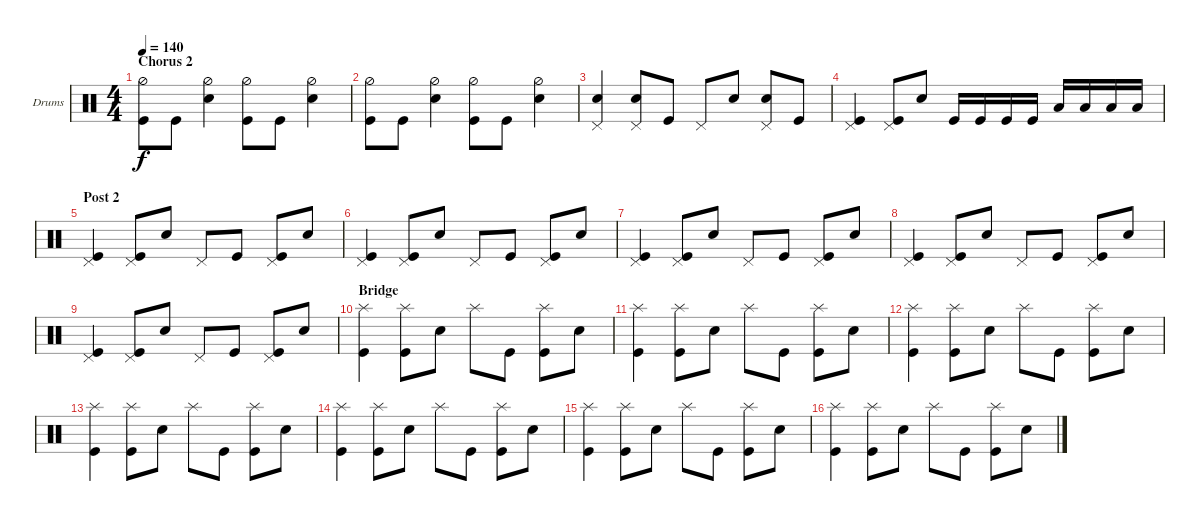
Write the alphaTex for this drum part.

\defaultSystemsLayout 4
\bracketExtendMode groupsimilarinstruments
\firstSystemTrackNameOrientation horizontal
\otherSystemsTrackNameOrientation horizontal
\track ("Drumkit" "Drums") {instrument percussion}
\staff {score}
\articulation defaults
\ts (4 4)
\section ("" "Chorus 2")
\tempo 140
\clef neutral
\ks c
("Kick (hit)" "Hi-Hat (half)").8{dy f} "Kick (hit)".8 ("Snare (hit) 2" "Hi-Hat (half)").4 ("Kick (hit)" "Hi-Hat (half)").8 "Kick (hit)".8 ("Snare (hit) 2" "Hi-Hat (half)").4 |
("Kick (hit)" "Hi-Hat (half)").8 "Kick (hit)".8 ("Snare (hit) 2" "Hi-Hat (half)").4 ("Kick (hit)" "Hi-Hat (half)").8 "Kick (hit)".8 ("Snare (hit) 2" "Hi-Hat (half)").4 |
("Pedal Hi-Hat (hit)" "Snare (hit) 2").4 ("Pedal Hi-Hat (hit)" "Snare (hit) 2").8 "Kick (hit)".8 "Pedal Hi-Hat (hit)".8 "Snare (hit) 2".8 ("Pedal Hi-Hat (hit)" "Snare (hit) 2").8 "Kick (hit)".8 |
("Kick (hit)" "Pedal Hi-Hat (hit)").4 ("Kick (hit)" "Pedal Hi-Hat (hit)").8 "Snare (hit) 2".8 "Kick (hit)".16 "Kick (hit)".16 "Kick (hit)".16 "Kick (hit)".16 "Low Tom (hit)".16 "Low Tom (hit)".16 "Low Tom (hit)".16 "Low Tom (hit)".16 |
\section ("" "Post 2")
("Kick (hit)" "Pedal Hi-Hat (hit)").4 ("Kick (hit)" "Pedal Hi-Hat (hit)").8 "Snare (hit) 2".8 "Pedal Hi-Hat (hit)".8 "Kick (hit)".8 ("Kick (hit)" "Pedal Hi-Hat (hit)").8 "Snare (hit) 2".8 |
("Kick (hit)" "Pedal Hi-Hat (hit)").4 ("Kick (hit)" "Pedal Hi-Hat (hit)").8 "Snare (hit) 2".8 "Pedal Hi-Hat (hit)".8 "Kick (hit)".8 ("Kick (hit)" "Pedal Hi-Hat (hit)").8 "Snare (hit) 2".8 |
("Kick (hit)" "Pedal Hi-Hat (hit)").4 ("Kick (hit)" "Pedal Hi-Hat (hit)").8 "Snare (hit) 2".8 "Pedal Hi-Hat (hit)".8 "Kick (hit)".8 ("Kick (hit)" "Pedal Hi-Hat (hit)").8 "Snare (hit) 2".8 |
("Kick (hit)" "Pedal Hi-Hat (hit)").4 ("Kick (hit)" "Pedal Hi-Hat (hit)").8 "Snare (hit) 2".8 "Pedal Hi-Hat (hit)".8 "Kick (hit)".8 ("Kick (hit)" "Pedal Hi-Hat (hit)").8 "Snare (hit) 2".8 |
("Kick (hit)" "Pedal Hi-Hat (hit)").4 ("Kick (hit)" "Pedal Hi-Hat (hit)").8 "Snare (hit) 2".8 "Pedal Hi-Hat (hit)".8 "Kick (hit)".8 ("Kick (hit)" "Pedal Hi-Hat (hit)").8 "Snare (hit) 2".8 |
\section ("" "Bridge")
("Kick (hit)" "Splash (hit)").4 ("Kick (hit)" "Splash (hit)").8 "Snare (hit) 2".8 "Splash (hit)".8 "Kick (hit)".8 ("Kick (hit)" "Splash (hit)").8 "Snare (hit) 2".8 |
("Kick (hit)" "Splash (hit)").4 ("Kick (hit)" "Splash (hit)").8 "Snare (hit) 2".8 "Splash (hit)".8 "Kick (hit)".8 ("Kick (hit)" "Splash (hit)").8 "Snare (hit) 2".8 |
("Kick (hit)" "Splash (hit)").4 ("Kick (hit)" "Splash (hit)").8 "Snare (hit) 2".8 "Splash (hit)".8 "Kick (hit)".8 ("Kick (hit)" "Splash (hit)").8 "Snare (hit) 2".8 |
("Kick (hit)" "Splash (hit)").4 ("Kick (hit)" "Splash (hit)").8 "Snare (hit) 2".8 "Splash (hit)".8 "Kick (hit)".8 ("Kick (hit)" "Splash (hit)").8 "Snare (hit) 2".8 |
("Kick (hit)" "Splash (hit)").4 ("Kick (hit)" "Splash (hit)").8 "Snare (hit) 2".8 "Splash (hit)".8 "Kick (hit)".8 ("Kick (hit)" "Splash (hit)").8 "Snare (hit) 2".8 |
("Kick (hit)" "Splash (hit)").4 ("Kick (hit)" "Splash (hit)").8 "Snare (hit) 2".8 "Splash (hit)".8 "Kick (hit)".8 ("Kick (hit)" "Splash (hit)").8 "Snare (hit) 2".8 |
("Kick (hit)" "Splash (hit)").4 ("Kick (hit)" "Splash (hit)").8 "Snare (hit) 2".8 "Splash (hit)".8 "Kick (hit)".8 ("Kick (hit)" "Splash (hit)").8 "Snare (hit) 2".8
